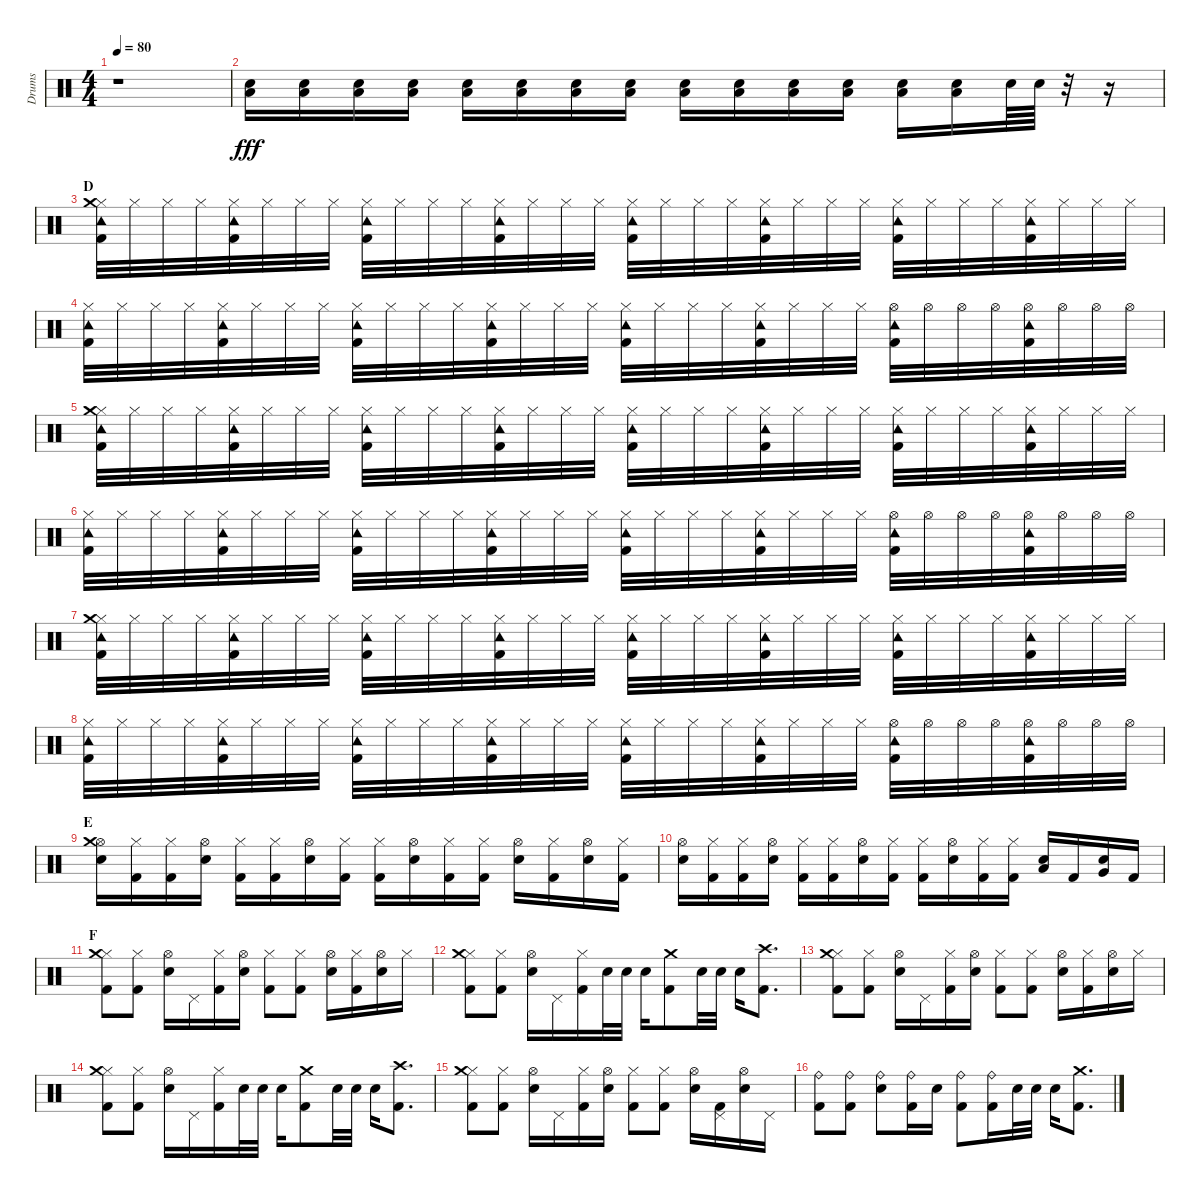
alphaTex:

\track ("Drums" "Drums") {instrument percussion}
\staff {score}
\articulation defaults
\ts (4 4)
\tempo 80
\clef neutral
\ks c
r.1{dy fff} |
("Low Tom (hit)" "Snare (hit) 2").16 ("Low Tom (hit)" "Snare (hit) 2").16 ("Low Tom (hit)" "Snare (hit) 2").16 ("Low Tom (hit)" "Snare (hit) 2").16 ("Low Tom (hit)" "Snare (hit) 2").16 ("Low Tom (hit)" "Snare (hit) 2").16 ("Low Tom (hit)" "Snare (hit) 2").16 ("Low Tom (hit)" "Snare (hit) 2").16 ("Low Tom (hit)" "Snare (hit) 2").16 ("Low Tom (hit)" "Snare (hit) 2").16 ("Low Tom (hit)" "Snare (hit) 2").16 ("Low Tom (hit)" "Snare (hit) 2").16 ("Low Tom (hit)" "Snare (hit) 2").16 ("Low Tom (hit)" "Snare (hit) 2").16 "Snare (hit) 2".64 "Snare (hit) 2".64 r.32 r.16 |
\section ("" "D")
("Hi-Hat (closed)" "Crash medium (hit)" "Tambourine (hit)" "Kick (hit) 2").32 "Hi-Hat (closed)".32 "Hi-Hat (closed)".32 "Hi-Hat (closed)".32 ("Hi-Hat (closed)" "Tambourine (hit)" "Kick (hit) 2").32 "Hi-Hat (closed)".32 "Hi-Hat (closed)".32 "Hi-Hat (closed)".32 ("Hi-Hat (closed)" "Tambourine (hit)" "Kick (hit) 2").32 "Hi-Hat (closed)".32 "Hi-Hat (closed)".32 "Hi-Hat (closed)".32 ("Hi-Hat (closed)" "Tambourine (hit)" "Kick (hit) 2").32 "Hi-Hat (closed)".32 "Hi-Hat (closed)".32 "Hi-Hat (closed)".32 ("Hi-Hat (closed)" "Tambourine (hit)" "Kick (hit) 2").32 "Hi-Hat (closed)".32 "Hi-Hat (closed)".32 "Hi-Hat (closed)".32 ("Hi-Hat (closed)" "Tambourine (hit)" "Kick (hit) 2").32 "Hi-Hat (closed)".32 "Hi-Hat (closed)".32 "Hi-Hat (closed)".32 ("Hi-Hat (closed)" "Tambourine (hit)" "Kick (hit) 2").32 "Hi-Hat (closed)".32 "Hi-Hat (closed)".32 "Hi-Hat (closed)".32 ("Hi-Hat (closed)" "Tambourine (hit)" "Kick (hit) 2").32 "Hi-Hat (closed)".32 "Hi-Hat (closed)".32 "Hi-Hat (closed)".32 |
("Hi-Hat (closed)" "Tambourine (hit)" "Kick (hit) 2").32 "Hi-Hat (closed)".32 "Hi-Hat (closed)".32 "Hi-Hat (closed)".32 ("Hi-Hat (closed)" "Tambourine (hit)" "Kick (hit) 2").32 "Hi-Hat (closed)".32 "Hi-Hat (closed)".32 "Hi-Hat (closed)".32 ("Hi-Hat (closed)" "Tambourine (hit)" "Kick (hit) 2").32 "Hi-Hat (closed)".32 "Hi-Hat (closed)".32 "Hi-Hat (closed)".32 ("Hi-Hat (closed)" "Tambourine (hit)" "Kick (hit) 2").32 "Hi-Hat (closed)".32 "Hi-Hat (closed)".32 "Hi-Hat (closed)".32 ("Hi-Hat (closed)" "Tambourine (hit)" "Kick (hit) 2").32 "Hi-Hat (closed)".32 "Hi-Hat (closed)".32 "Hi-Hat (closed)".32 ("Hi-Hat (closed)" "Tambourine (hit)" "Kick (hit) 2").32 "Hi-Hat (closed)".32 "Hi-Hat (closed)".32 "Hi-Hat (closed)".32 ("Hi-Hat (open)" "Tambourine (hit)" "Kick (hit) 2").32 "Hi-Hat (open)".32 "Hi-Hat (open)".32 "Hi-Hat (open)".32 ("Hi-Hat (open)" "Tambourine (hit)" "Kick (hit) 2").32 "Hi-Hat (open)".32 "Hi-Hat (open)".32 "Hi-Hat (open)".32 |
("Hi-Hat (closed)" "Crash medium (hit)" "Tambourine (hit)" "Kick (hit) 2").32 "Hi-Hat (closed)".32 "Hi-Hat (closed)".32 "Hi-Hat (closed)".32 ("Hi-Hat (closed)" "Tambourine (hit)" "Kick (hit) 2").32 "Hi-Hat (closed)".32 "Hi-Hat (closed)".32 "Hi-Hat (closed)".32 ("Hi-Hat (closed)" "Tambourine (hit)" "Kick (hit) 2").32 "Hi-Hat (closed)".32 "Hi-Hat (closed)".32 "Hi-Hat (closed)".32 ("Hi-Hat (closed)" "Tambourine (hit)" "Kick (hit) 2").32 "Hi-Hat (closed)".32 "Hi-Hat (closed)".32 "Hi-Hat (closed)".32 ("Hi-Hat (closed)" "Tambourine (hit)" "Kick (hit) 2").32 "Hi-Hat (closed)".32 "Hi-Hat (closed)".32 "Hi-Hat (closed)".32 ("Hi-Hat (closed)" "Tambourine (hit)" "Kick (hit) 2").32 "Hi-Hat (closed)".32 "Hi-Hat (closed)".32 "Hi-Hat (closed)".32 ("Hi-Hat (closed)" "Tambourine (hit)" "Kick (hit) 2").32 "Hi-Hat (closed)".32 "Hi-Hat (closed)".32 "Hi-Hat (closed)".32 ("Hi-Hat (closed)" "Tambourine (hit)" "Kick (hit) 2").32 "Hi-Hat (closed)".32 "Hi-Hat (closed)".32 "Hi-Hat (closed)".32 |
("Hi-Hat (closed)" "Tambourine (hit)" "Kick (hit) 2").32 "Hi-Hat (closed)".32 "Hi-Hat (closed)".32 "Hi-Hat (closed)".32 ("Hi-Hat (closed)" "Tambourine (hit)" "Kick (hit) 2").32 "Hi-Hat (closed)".32 "Hi-Hat (closed)".32 "Hi-Hat (closed)".32 ("Hi-Hat (closed)" "Tambourine (hit)" "Kick (hit) 2").32 "Hi-Hat (closed)".32 "Hi-Hat (closed)".32 "Hi-Hat (closed)".32 ("Hi-Hat (closed)" "Tambourine (hit)" "Kick (hit) 2").32 "Hi-Hat (closed)".32 "Hi-Hat (closed)".32 "Hi-Hat (closed)".32 ("Hi-Hat (closed)" "Tambourine (hit)" "Kick (hit) 2").32 "Hi-Hat (closed)".32 "Hi-Hat (closed)".32 "Hi-Hat (closed)".32 ("Hi-Hat (closed)" "Tambourine (hit)" "Kick (hit) 2").32 "Hi-Hat (closed)".32 "Hi-Hat (closed)".32 "Hi-Hat (closed)".32 ("Hi-Hat (open)" "Tambourine (hit)" "Kick (hit) 2").32 "Hi-Hat (open)".32 "Hi-Hat (open)".32 "Hi-Hat (open)".32 ("Hi-Hat (open)" "Tambourine (hit)" "Kick (hit) 2").32 "Hi-Hat (open)".32 "Hi-Hat (open)".32 "Hi-Hat (open)".32 |
("Hi-Hat (closed)" "Crash medium (hit)" "Tambourine (hit)" "Kick (hit) 2").32 "Hi-Hat (closed)".32 "Hi-Hat (closed)".32 "Hi-Hat (closed)".32 ("Hi-Hat (closed)" "Tambourine (hit)" "Kick (hit) 2").32 "Hi-Hat (closed)".32 "Hi-Hat (closed)".32 "Hi-Hat (closed)".32 ("Hi-Hat (closed)" "Tambourine (hit)" "Kick (hit) 2").32 "Hi-Hat (closed)".32 "Hi-Hat (closed)".32 "Hi-Hat (closed)".32 ("Hi-Hat (closed)" "Tambourine (hit)" "Kick (hit) 2").32 "Hi-Hat (closed)".32 "Hi-Hat (closed)".32 "Hi-Hat (closed)".32 ("Hi-Hat (closed)" "Tambourine (hit)" "Kick (hit) 2").32 "Hi-Hat (closed)".32 "Hi-Hat (closed)".32 "Hi-Hat (closed)".32 ("Hi-Hat (closed)" "Tambourine (hit)" "Kick (hit) 2").32 "Hi-Hat (closed)".32 "Hi-Hat (closed)".32 "Hi-Hat (closed)".32 ("Hi-Hat (closed)" "Tambourine (hit)" "Kick (hit) 2").32 "Hi-Hat (closed)".32 "Hi-Hat (closed)".32 "Hi-Hat (closed)".32 ("Hi-Hat (closed)" "Tambourine (hit)" "Kick (hit) 2").32 "Hi-Hat (closed)".32 "Hi-Hat (closed)".32 "Hi-Hat (closed)".32 |
("Hi-Hat (closed)" "Tambourine (hit)" "Kick (hit) 2").32 "Hi-Hat (closed)".32 "Hi-Hat (closed)".32 "Hi-Hat (closed)".32 ("Hi-Hat (closed)" "Tambourine (hit)" "Kick (hit) 2").32 "Hi-Hat (closed)".32 "Hi-Hat (closed)".32 "Hi-Hat (closed)".32 ("Hi-Hat (closed)" "Tambourine (hit)" "Kick (hit) 2").32 "Hi-Hat (closed)".32 "Hi-Hat (closed)".32 "Hi-Hat (closed)".32 ("Hi-Hat (closed)" "Tambourine (hit)" "Kick (hit) 2").32 "Hi-Hat (closed)".32 "Hi-Hat (closed)".32 "Hi-Hat (closed)".32 ("Hi-Hat (closed)" "Tambourine (hit)" "Kick (hit) 2").32 "Hi-Hat (closed)".32 "Hi-Hat (closed)".32 "Hi-Hat (closed)".32 ("Hi-Hat (closed)" "Tambourine (hit)" "Kick (hit) 2").32 "Hi-Hat (closed)".32 "Hi-Hat (closed)".32 "Hi-Hat (closed)".32 ("Hi-Hat (open)" "Tambourine (hit)" "Kick (hit) 2").32 "Hi-Hat (open)".32 "Hi-Hat (open)".32 "Hi-Hat (open)".32 ("Hi-Hat (open)" "Tambourine (hit)" "Kick (hit) 2").32 "Hi-Hat (open)".32 "Hi-Hat (open)".32 "Hi-Hat (open)".32 |
\section ("" "E")
("Hi-Hat (open)" "Crash medium (hit)" "Snare (hit) 2").16 ("Hi-Hat (closed)" "Kick (hit) 2").16 ("Hi-Hat (closed)" "Kick (hit) 2").16 ("Hi-Hat (open)" "Snare (hit) 2").16 ("Hi-Hat (closed)" "Kick (hit) 2").16 ("Hi-Hat (closed)" "Kick (hit) 2").16 ("Hi-Hat (open)" "Snare (hit) 2").16 ("Hi-Hat (closed)" "Kick (hit) 2").16 ("Hi-Hat (closed)" "Kick (hit) 2").16 ("Hi-Hat (open)" "Snare (hit) 2").16 ("Hi-Hat (closed)" "Kick (hit) 2").16 ("Hi-Hat (closed)" "Kick (hit) 2").16 ("Hi-Hat (open)" "Snare (hit) 2").16 ("Hi-Hat (closed)" "Kick (hit) 2").16 ("Hi-Hat (open)" "Snare (hit) 2").16 ("Hi-Hat (closed)" "Kick (hit) 2").16 |
("Hi-Hat (open)" "Snare (hit) 2").16 ("Hi-Hat (closed)" "Kick (hit) 2").16 ("Hi-Hat (closed)" "Kick (hit) 2").16 ("Hi-Hat (open)" "Snare (hit) 2").16 ("Hi-Hat (closed)" "Kick (hit) 2").16 ("Hi-Hat (closed)" "Kick (hit) 2").16 ("Hi-Hat (open)" "Snare (hit) 2").16 ("Hi-Hat (closed)" "Kick (hit) 2").16 ("Hi-Hat (closed)" "Kick (hit) 2").16 ("Hi-Hat (open)" "Snare (hit) 2").16 ("Hi-Hat (closed)" "Kick (hit) 2").16 ("Hi-Hat (closed)" "Kick (hit) 2").16 ("Low Tom (hit)" "Snare (hit) 2").16 "Kick (hit) 2".16 ("Very Low Tom (hit)" "Snare (hit) 2").16 "Kick (hit) 2".16 |
\section ("" "F")
("Hi-Hat (closed)" "Crash medium (hit)" "Kick (hit) 2").8 ("Hi-Hat (closed)" "Kick (hit) 2").8 ("Hi-Hat (open)" "Snare (hit) 2").16 "Pedal Hi-Hat (hit)".16 ("Hi-Hat (closed)" "Kick (hit) 2").16 ("Hi-Hat (open)" "Snare (hit) 2").16 ("Hi-Hat (closed)" "Kick (hit) 2").8 ("Hi-Hat (closed)" "Kick (hit) 2").8 ("Hi-Hat (open)" "Snare (hit) 2").16 ("Hi-Hat (closed)" "Kick (hit) 2").16 ("Hi-Hat (open)" "Snare (hit) 2").16 "Hi-Hat (closed)".16 |
("Hi-Hat (closed)" "Crash medium (hit)" "Kick (hit) 2").8 ("Hi-Hat (closed)" "Kick (hit) 2").8 ("Hi-Hat (open)" "Snare (hit) 2").16 "Pedal Hi-Hat (hit)".16 ("Hi-Hat (closed)" "Kick (hit) 2").16 "Snare (hit) 2".32 "Snare (hit) 2".32 "Snare (hit) 2".16 ("Crash medium (hit)" "Kick (hit) 2").8 "Snare (hit) 2".32 "Snare (hit) 2".32 "Snare (hit) 2".16 ("Crash high (hit)" "Kick (hit) 2").8{d} |
("Hi-Hat (closed)" "Crash medium (hit)" "Kick (hit) 2").8 ("Hi-Hat (closed)" "Kick (hit) 2").8 ("Hi-Hat (open)" "Snare (hit) 2").16 "Pedal Hi-Hat (hit)".16 ("Hi-Hat (closed)" "Kick (hit) 2").16 ("Hi-Hat (open)" "Snare (hit) 2").16 ("Hi-Hat (closed)" "Kick (hit) 2").8 ("Hi-Hat (closed)" "Kick (hit) 2").8 ("Hi-Hat (open)" "Snare (hit) 2").16 ("Hi-Hat (closed)" "Kick (hit) 2").16 ("Hi-Hat (open)" "Snare (hit) 2").16 "Hi-Hat (closed)".16 |
("Hi-Hat (closed)" "Crash medium (hit)" "Kick (hit) 2").8 ("Hi-Hat (closed)" "Kick (hit) 2").8 ("Hi-Hat (open)" "Snare (hit) 2").16 "Pedal Hi-Hat (hit)".16 ("Hi-Hat (closed)" "Kick (hit) 2").16 "Snare (hit) 2".32 "Snare (hit) 2".32 "Snare (hit) 2".16 ("Crash medium (hit)" "Kick (hit) 2").8 "Snare (hit) 2".32 "Snare (hit) 2".32 "Snare (hit) 2".16 ("Crash high (hit)" "Kick (hit) 2").8{d} |
("Hi-Hat (closed)" "Crash medium (hit)" "Kick (hit) 2").8 ("Hi-Hat (closed)" "Kick (hit) 2").8 ("Hi-Hat (open)" "Snare (hit) 2").16 "Pedal Hi-Hat (hit)".16 ("Hi-Hat (closed)" "Kick (hit) 2").16 ("Hi-Hat (open)" "Snare (hit) 2").16 ("Hi-Hat (closed)" "Kick (hit) 2").8 ("Hi-Hat (closed)" "Kick (hit) 2").8 ("Hi-Hat (open)" "Snare (hit) 2").16 ("Pedal Hi-Hat (hit)" "Kick (hit) 2").16 ("Hi-Hat (open)" "Snare (hit) 2").16 "Pedal Hi-Hat (hit)".16 |
("Ride (bell)" "Kick (hit) 2").8 ("Ride (bell)" "Kick (hit) 2").8 ("Ride (bell)" "Snare (hit) 2").8 ("Ride (bell)" "Kick (hit) 2").16 "Snare (hit) 2".16 ("Ride (bell)" "Kick (hit) 2").8 ("Ride (bell)" "Kick (hit) 2").16 "Snare (hit) 2".32 "Snare (hit) 2".32 "Snare (hit) 2".16 ("Crash medium (hit)" "Kick (hit) 2").8{d}
